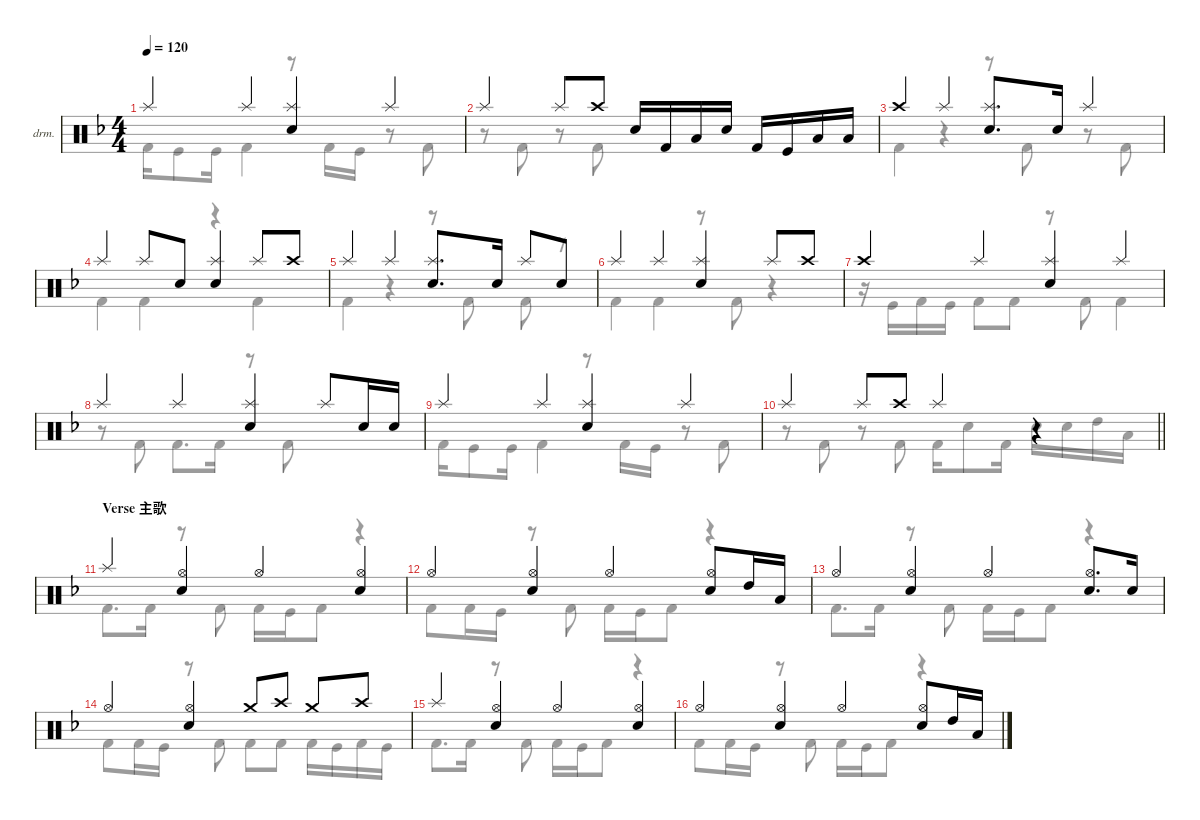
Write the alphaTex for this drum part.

\defaultSystemsLayout 4
\hideDynamics
\bracketExtendMode nobrackets
\firstSystemTrackNameOrientation horizontal
\track ("Drumkit" "drm.") {defaultSystemsLayout 4 instrument percussion}
\staff {score}
\articulation defaults
\voice
\ts (4 4)
\tempo 120
\clef neutral
\ks dminor "Splash (hit)"{acc forcenatural}.4{dy mf beam Up} "Splash (hit)"{acc forcenatural}.4{beam Up}
("Snare (hit) 2"{acc forcenatural} "Splash (hit)"{acc forcenatural}).4{beam Up} "Splash (hit)"{acc forcenatural}.4{beam Up} |
"Splash (hit)"{acc forcenatural}.4{beam Up} "Splash (hit)"{acc forcenatural}.8{beam Up} "Crash high (hit)"{acc forcenatural}.8{beam Up} "Snare (hit) 2"{acc forcenatural}.16{beam Up} "Kick (hit) 2"{acc forcenatural}.16{beam Up} "Low Tom (hit)"{acc forcenatural}.16{beam Up} "Snare (hit) 2"{acc forcenatural}.16{beam Up} "Kick (hit) 2"{acc forcenatural}.16{beam Up} "Kick (hit)"{acc forcenatural}.16{beam Up} "Low Tom (hit)"{acc forcenatural}.16{beam Up} "Low Tom (hit)"{acc forcenatural}.16{beam Up} |
"Crash high (hit)"{acc forcenatural}.4{beam Up} "Splash (hit)"{acc forcenatural}.4{beam Up} ("Snare (hit) 2"{acc forcenatural} "Splash (hit)"{acc forcenatural}).8{d beam Up} "Snare (hit) 2"{acc forcenatural}.16{beam Up} "Splash (hit)"{acc forcenatural}.4{beam Up} |
"Splash (hit)"{acc forcenatural}.4{beam Up} "Splash (hit)"{acc forcenatural}.8{beam Up} "Snare (hit) 2"{acc forcenatural}.8{beam Up} ("Snare (hit) 2"{acc forcenatural} "Splash (hit)"{acc forcenatural}).4{beam Up} "Splash (hit)"{acc forcenatural}.8{beam Up} "Crash high (hit)"{acc forcenatural}.8{beam Up} |
"Splash (hit)"{acc forcenatural}.4{beam Up} "Splash (hit)"{acc forcenatural}.4{beam Up} ("Snare (hit) 2"{acc forcenatural} "Splash (hit)"{acc forcenatural}).8{d beam Up} "Snare (hit) 2"{acc forcenatural}.16{beam Up} "Splash (hit)"{acc forcenatural}.8{beam Up} "Snare (hit) 2"{acc forcenatural}.8{beam Up} |
"Splash (hit)"{acc forcenatural}.4{beam Up} "Splash (hit)"{acc forcenatural}.4{beam Up} ("Snare (hit) 2"{acc forcenatural} "Splash (hit)"{acc forcenatural}).4{beam Up} "Splash (hit)"{acc forcenatural}.8{beam Up} "Crash high (hit)"{acc forcenatural}.8{beam Up} |
"Crash high (hit)"{acc forcenatural}.4{beam Up} "Splash (hit)"{acc forcenatural}.4{beam Up} ("Snare (hit) 2"{acc forcenatural} "Splash (hit)"{acc forcenatural}).4{beam Up} "Splash (hit)"{acc forcenatural}.4{beam Up} |
"Splash (hit)"{acc forcenatural}.4{beam Up} "Splash (hit)"{acc forcenatural}.4{beam Up} ("Snare (hit) 2"{acc forcenatural} "Splash (hit)"{acc forcenatural}).4{beam Up} "Splash (hit)"{acc forcenatural}.8{beam Up} "Snare (hit) 2"{acc forcenatural}.16{beam Up} "Snare (hit) 2"{acc forcenatural}.16{beam Up} |
"Splash (hit)"{acc forcenatural}.4{beam Up} "Splash (hit)"{acc forcenatural}.4{beam Up} ("Snare (hit) 2"{acc forcenatural} "Splash (hit)"{acc forcenatural}).4{beam Up} "Splash (hit)"{acc forcenatural}.4{beam Up} |
\barLineRight lightlight "Splash (hit)"{acc forcenatural}.4{beam Up} "Splash (hit)"{acc forcenatural}.8{beam Up} "Crash high (hit)"{acc forcenatural}.8{beam Up} "Splash (hit)"{acc forcenatural}.4{beam Up}
r.4{beam Up} |
\section ("" "Verse 主歌")
"Splash (hit)"{acc forcenatural}.4{beam Up} ("Hi-Hat (open)"{acc forcenatural} "Snare (hit) 2"{acc forcenatural}).4{beam Up} "Hi-Hat (open)"{acc forcenatural}.4{beam Up} ("Hi-Hat (open)"{acc forcenatural} "Snare (hit) 2"{acc forcenatural}).4{beam Up} |
"Hi-Hat (open)"{acc forcenatural}.4{beam Up} ("Hi-Hat (open)"{acc forcenatural} "Snare (hit) 2"{acc forcenatural}).4{beam Up} "Hi-Hat (open)"{acc forcenatural}.4{beam Up} ("Hi-Hat (open)"{acc forcenatural} "Snare (hit) 2"{acc forcenatural}).8{beam Up} "High Tom (hit)"{acc forcenatural}.16{beam Up} "Low Tom (hit)"{acc forcenatural}.16{beam Up} |
"Hi-Hat (open)"{acc forcenatural}.4{beam Up} ("Hi-Hat (open)"{acc forcenatural} "Snare (hit) 2"{acc forcenatural}).4{beam Up} "Hi-Hat (open)"{acc forcenatural}.4{beam Up} ("Hi-Hat (open)"{acc forcenatural} "Snare (hit) 2"{acc forcenatural}).8{d beam Up} "Snare (hit) 2"{acc forcenatural}.16{beam Up} |
"Hi-Hat (open)"{acc forcenatural}.4{beam Up} ("Hi-Hat (open)"{acc forcenatural} "Snare (hit) 2"{acc forcenatural}).4{beam Up} "Crash medium (hit)"{acc forcenatural}.8{beam Up} "Crash high (hit)"{acc forcenatural}.8{beam Up} "Crash medium (hit)"{acc forcenatural}.8{beam Up} "Crash high (hit)"{acc forcenatural}.8{beam Up} |
"Splash (hit)"{acc forcenatural}.4{beam Up} ("Hi-Hat (open)"{acc forcenatural} "Snare (hit) 2"{acc forcenatural}).4{beam Up} "Hi-Hat (open)"{acc forcenatural}.4{beam Up} ("Hi-Hat (open)"{acc forcenatural} "Snare (hit) 2"{acc forcenatural}).4{beam Up} |
"Hi-Hat (open)"{acc forcenatural}.4{beam Up} ("Hi-Hat (open)"{acc forcenatural} "Snare (hit) 2"{acc forcenatural}).4{beam Up} "Hi-Hat (open)"{acc forcenatural}.4{beam Up} ("Hi-Hat (open)"{acc forcenatural} "Snare (hit) 2"{acc forcenatural}).8{beam Up} "High Tom (hit)"{acc forcenatural}.16{beam Up} "Low Tom (hit)"{acc forcenatural}.16{beam Up}
\voice
\clef neutral
\ottava regular
\simile none
\ks dminor "Kick (hit) 2"{acc forcenatural}.16{dy mf beam Down} "Kick (hit)"{acc forcenatural}.8{beam Down} "Kick (hit)"{acc forcenatural}.16{beam Down} "Kick (hit) 2"{acc forcenatural}.4{beam Down}
r.8{beam Down} "Kick (hit) 2"{acc forcenatural}.16{beam Down} "Kick (hit)"{acc forcenatural}.16{beam Down} r.8{beam Down} "Kick (hit) 2"{acc forcenatural}.8{beam Down} |
r.8{beam Down} "Kick (hit) 2"{acc forcenatural}.8{beam Down} r.8{beam Down} "Kick (hit) 2"{acc forcenatural}.8{beam Down} |
"Kick (hit) 2"{acc forcenatural}.4{beam Down} r.4{beam Down} r.8{beam Down} "Kick (hit) 2"{acc forcenatural}.8{beam Down} r.8{beam Down} "Kick (hit) 2"{acc forcenatural}.8{beam Down} |
"Kick (hit) 2"{acc forcenatural}.4{beam Down} "Kick (hit) 2"{acc forcenatural}.4{beam Down} r.4{beam Down} "Kick (hit) 2"{acc forcenatural}.4{beam Down} |
"Kick (hit) 2"{acc forcenatural}.4{beam Down} r.4{beam Down} r.8{beam Down} "Kick (hit) 2"{acc forcenatural}.8{beam Down} "Kick (hit) 2"{acc forcenatural}.8{beam Down} r.8{beam Down} |
"Kick (hit) 2"{acc forcenatural}.4{beam Down} "Kick (hit) 2"{acc forcenatural}.4{beam Down} r.8{beam Down} "Kick (hit) 2"{acc forcenatural}.8{beam Down} r.4{beam Down} |
r.16{beam Down} "Kick (hit)"{acc forcenatural}.16{beam Down} "Kick (hit) 2"{acc forcenatural}.16{beam Down} "Kick (hit)"{acc forcenatural}.16{beam Down} "Kick (hit) 2"{acc forcenatural}.8{beam Down} "Kick (hit) 2"{acc forcenatural}.8{beam Down} r.8{beam Down} "Kick (hit) 2"{acc forcenatural}.8{beam Down} "Kick (hit) 2"{acc forcenatural}.4{beam Down} |
r.8{beam Down} "Kick (hit) 2"{acc forcenatural}.8{beam Down} "Kick (hit) 2"{acc forcenatural}.8{d beam Down} "Kick (hit) 2"{acc forcenatural}.16{beam Down} r.8{beam Down} "Kick (hit) 2"{acc forcenatural}.8{beam Down} |
"Kick (hit) 2"{acc forcenatural}.16{beam Down} "Kick (hit)"{acc forcenatural}.8{beam Down} "Kick (hit)"{acc forcenatural}.16{beam Down} "Kick (hit) 2"{acc forcenatural}.4{beam Down} r.8{beam Down} "Kick (hit) 2"{acc forcenatural}.16{beam Down} "Kick (hit)"{acc forcenatural}.16{beam Down} r.8{beam Down} "Kick (hit) 2"{acc forcenatural}.8{beam Down} |
\barLineRight lightlight
r.8{beam Down} "Kick (hit) 2"{acc forcenatural}.8{beam Down} r.8{beam Down} "Kick (hit) 2"{acc forcenatural}.8{beam Down} "Kick (hit) 2"{acc forcenatural}.16{beam Down} "Snare (hit) 2"{acc forcenatural}.8{beam Down} "Kick (hit) 2"{acc forcenatural}.16{beam Down} "Snare (hit) 2"{acc forcenatural}.16{beam Down} "Snare (hit) 2"{acc forcenatural}.16{beam Down} "High Tom (hit)"{acc forcenatural}.16{beam Down} "Low Tom (hit)"{acc forcenatural}.16{beam Down} |
"Kick (hit) 2"{acc forcenatural}.8{d beam Down} "Kick (hit) 2"{acc forcenatural}.16{beam Down} r.8{beam Down} "Kick (hit) 2"{acc forcenatural}.8{beam Down} "Kick (hit) 2"{acc forcenatural}.16{beam Down} "Kick (hit)"{acc forcenatural}.16{beam Down} "Kick (hit) 2"{acc forcenatural}.8{beam Down} r.4{beam Down} |
"Kick (hit) 2"{acc forcenatural}.8{beam Down} "Kick (hit) 2"{acc forcenatural}.16{beam Down} "Kick (hit)"{acc forcenatural}.16{beam Down} r.8{beam Down} "Kick (hit) 2"{acc forcenatural}.8{beam Down} "Kick (hit) 2"{acc forcenatural}.16{beam Down} "Kick (hit)"{acc forcenatural}.16{beam Down} "Kick (hit) 2"{acc forcenatural}.8{beam Down} r.4{beam Down} |
"Kick (hit) 2"{acc forcenatural}.8{d beam Down} "Kick (hit) 2"{acc forcenatural}.16{beam Down} r.8{beam Down} "Kick (hit) 2"{acc forcenatural}.8{beam Down} "Kick (hit) 2"{acc forcenatural}.16{beam Down} "Kick (hit)"{acc forcenatural}.16{beam Down} "Kick (hit) 2"{acc forcenatural}.8{beam Down} r.4{beam Down} |
"Kick (hit) 2"{acc forcenatural}.8{beam Down} "Kick (hit) 2"{acc forcenatural}.16{beam Down} "Kick (hit)"{acc forcenatural}.16{beam Down} r.8{beam Down} "Kick (hit) 2"{acc forcenatural}.8{beam Down} "Kick (hit) 2"{acc forcenatural}.8{beam Down} "Kick (hit) 2"{acc forcenatural}.8{beam Down} "Kick (hit) 2"{acc forcenatural}.16{beam Down} "Kick (hit)"{acc forcenatural}.16{beam Down} "Kick (hit) 2"{acc forcenatural}.16{beam Down} "Kick (hit)"{acc forcenatural}.16{beam Down} |
"Kick (hit) 2"{acc forcenatural}.8{d beam Down} "Kick (hit) 2"{acc forcenatural}.16{beam Down} r.8{beam Down} "Kick (hit) 2"{acc forcenatural}.8{beam Down} "Kick (hit) 2"{acc forcenatural}.16{beam Down} "Kick (hit)"{acc forcenatural}.16{beam Down} "Kick (hit) 2"{acc forcenatural}.8{beam Down} r.4{beam Down} |
"Kick (hit) 2"{acc forcenatural}.8{beam Down} "Kick (hit) 2"{acc forcenatural}.16{beam Down} "Kick (hit)"{acc forcenatural}.16{beam Down} r.8{beam Down} "Kick (hit) 2"{acc forcenatural}.8{beam Down} "Kick (hit) 2"{acc forcenatural}.16{beam Down} "Kick (hit)"{acc forcenatural}.16{beam Down} "Kick (hit) 2"{acc forcenatural}.8{beam Down} r.4{beam Down}
